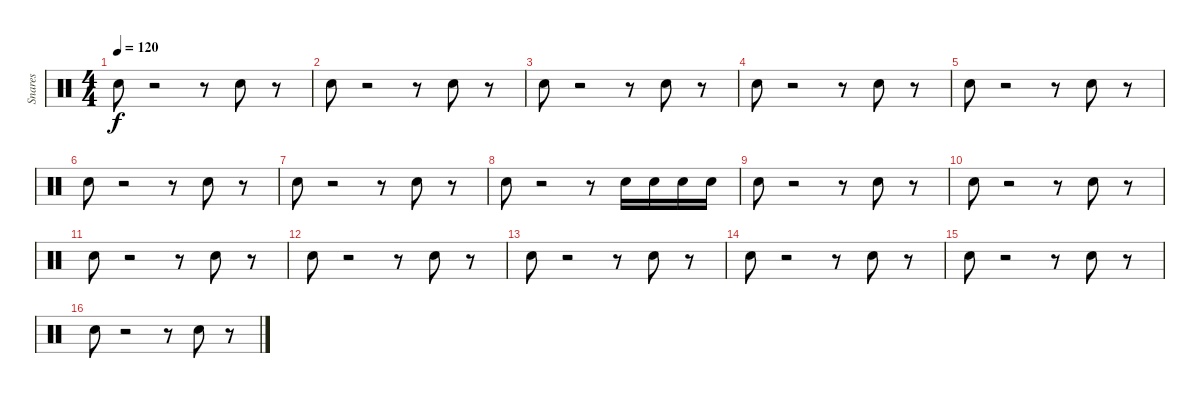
\track ("Snares              " "Snares    ") {instrument percussion}
\staff {score}
\articulation defaults
\ts (4 4)
\tempo 120
\clef neutral
\ks c "Snare (hit) 2".8{dy f}
r.2 r.8 "Snare (hit) 2".8 r.8 |
"Snare (hit) 2".8 r.2 r.8 "Snare (hit) 2".8 r.8 |
"Snare (hit) 2".8 r.2 r.8 "Snare (hit) 2".8 r.8 |
"Snare (hit) 2".8 r.2 r.8 "Snare (hit) 2".8 r.8 |
"Snare (hit) 2".8 r.2 r.8 "Snare (hit) 2".8 r.8 |
"Snare (hit) 2".8 r.2 r.8 "Snare (hit) 2".8 r.8 |
"Snare (hit) 2".8 r.2 r.8 "Snare (hit) 2".8 r.8 |
"Snare (hit) 2".8 r.2 r.8 "Snare (hit) 2".16 "Snare (hit) 2".16 "Snare (hit) 2".16 "Snare (hit) 2".16 |
"Snare (hit) 2".8 r.2 r.8 "Snare (hit) 2".8 r.8 |
"Snare (hit) 2".8 r.2 r.8 "Snare (hit) 2".8 r.8 |
"Snare (hit) 2".8 r.2 r.8 "Snare (hit) 2".8 r.8 |
"Snare (hit) 2".8 r.2 r.8 "Snare (hit) 2".8 r.8 |
"Snare (hit) 2".8 r.2 r.8 "Snare (hit) 2".8 r.8 |
"Snare (hit) 2".8 r.2 r.8 "Snare (hit) 2".8 r.8 |
"Snare (hit) 2".8 r.2 r.8 "Snare (hit) 2".8 r.8 |
"Snare (hit) 2".8 r.2 r.8 "Snare (hit) 2".8 r.8
